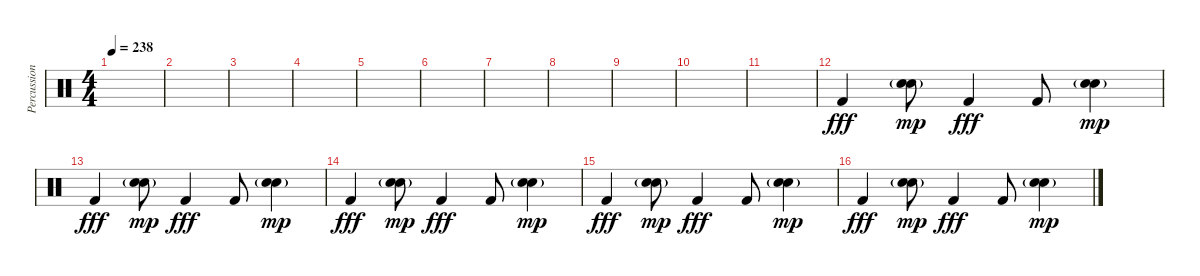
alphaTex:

\track ("Percussion" "Percussion") {instrument percussion}
\staff {score}
\articulation defaults
\ts (4 4)
\tempo 238
\clef neutral
\ks c
|
|
|
|
|
|
|
|
|
|
|
"Kick (hit) 2".4{dy fff} ("Hand Clap (hit)"{g} "Hand Clap (hit)"{g}).8{bd 480 dy mp} "Kick (hit) 2".4{dy fff} "Kick (hit) 2".8 ("Hand Clap (hit)"{g} "Hand Clap (hit)"{g}).4{bd 480 dy mp} |
"Kick (hit) 2".4{dy fff} ("Hand Clap (hit)"{g} "Hand Clap (hit)"{g}).8{bd 480 dy mp} "Kick (hit) 2".4{dy fff} "Kick (hit) 2".8 ("Hand Clap (hit)"{g} "Hand Clap (hit)"{g}).4{bd 480 dy mp} |
"Kick (hit) 2".4{dy fff} ("Hand Clap (hit)"{g} "Hand Clap (hit)"{g}).8{bd 480 dy mp} "Kick (hit) 2".4{dy fff} "Kick (hit) 2".8 ("Hand Clap (hit)"{g} "Hand Clap (hit)"{g}).4{bd 480 dy mp} |
"Kick (hit) 2".4{dy fff} ("Hand Clap (hit)"{g} "Hand Clap (hit)"{g}).8{bd 480 dy mp} "Kick (hit) 2".4{dy fff} "Kick (hit) 2".8 ("Hand Clap (hit)"{g} "Hand Clap (hit)"{g}).4{bd 480 dy mp} |
"Kick (hit) 2".4{dy fff} ("Hand Clap (hit)"{g} "Hand Clap (hit)"{g}).8{bd 480 dy mp} "Kick (hit) 2".4{dy fff} "Kick (hit) 2".8 ("Hand Clap (hit)"{g} "Hand Clap (hit)"{g}).4{bd 480 dy mp}
